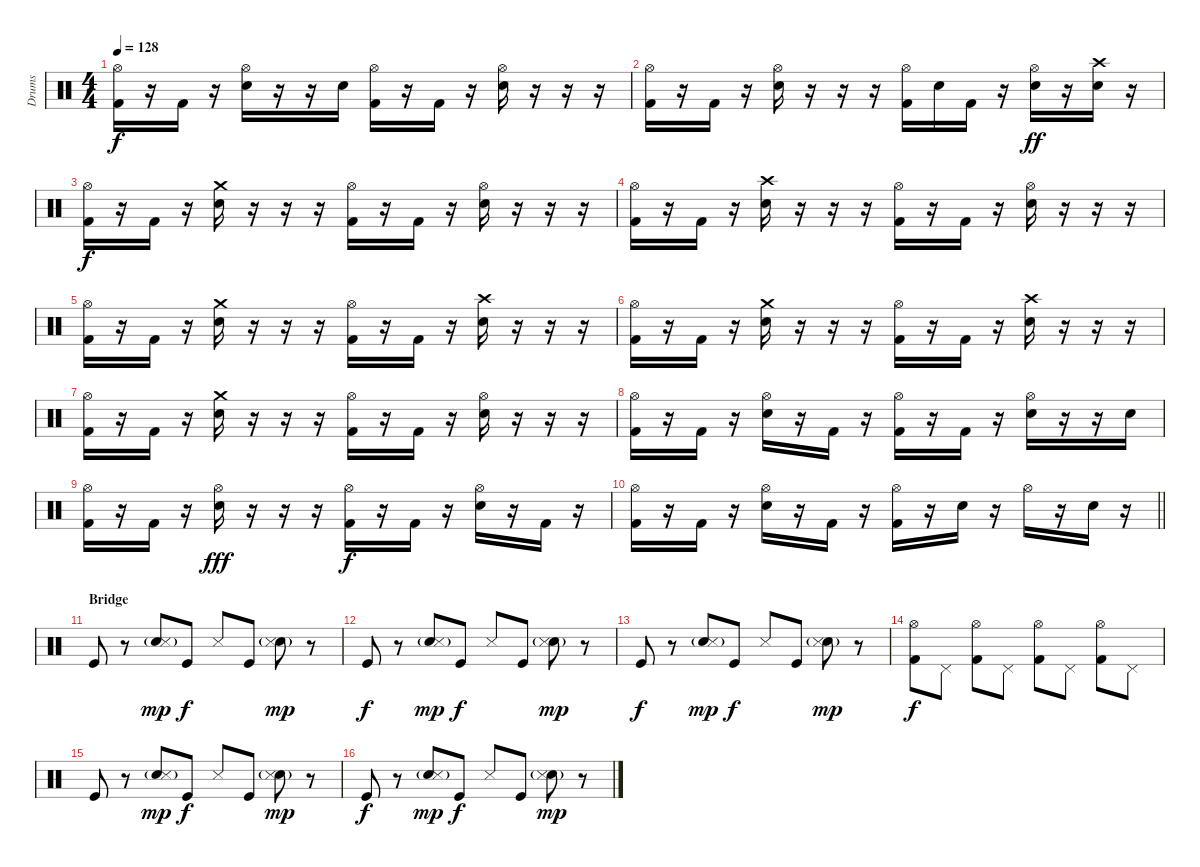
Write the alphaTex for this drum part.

\track ("Drums" "Drums") {instrument percussion}
\staff {score}
\articulation defaults
\ts (4 4)
\tempo 128
\clef neutral
\ks c
("Hi-Hat (open)" "Kick (hit) 2").16{dy f} r.16 "Kick (hit) 2".16 r.16 ("Hi-Hat (open)" "Electric Snare (hit)").16 r.16 r.16 "Electric Snare (hit)".16 ("Hi-Hat (open)" "Kick (hit) 2").16 r.16 "Kick (hit) 2".16 r.16 ("Hi-Hat (open)" "Electric Snare (hit)").16 r.16 r.16 r.16 |
("Hi-Hat (open)" "Kick (hit) 2").16 r.16 "Kick (hit) 2".16 r.16 ("Hi-Hat (open)" "Electric Snare (hit)").16 r.16 r.16 r.16 ("Hi-Hat (open)" "Kick (hit) 2").16 "Electric Snare (hit)".16 "Kick (hit) 2".16 r.16 ("Hi-Hat (open)" "Electric Snare (hit)").16{dy ff} r.16 ("Crash high (hit)" "Electric Snare (hit)").16 r.16 |
("Hi-Hat (open)" "Kick (hit) 2").16{dy f} r.16 "Kick (hit) 2".16 r.16 ("Crash medium (hit)" "Electric Snare (hit)").16 r.16 r.16 r.16 ("Hi-Hat (open)" "Kick (hit) 2").16 r.16 "Kick (hit) 2".16 r.16 ("Hi-Hat (open)" "Electric Snare (hit)").16 r.16 r.16 r.16 |
("Hi-Hat (open)" "Kick (hit) 2").16 r.16 "Kick (hit) 2".16 r.16 ("Crash high (hit)" "Electric Snare (hit)").16 r.16 r.16 r.16 ("Hi-Hat (open)" "Kick (hit) 2").16 r.16 "Kick (hit) 2".16 r.16 ("Hi-Hat (open)" "Electric Snare (hit)").16 r.16 r.16 r.16 |
("Hi-Hat (open)" "Kick (hit) 2").16 r.16 "Kick (hit) 2".16 r.16 ("Crash medium (hit)" "Electric Snare (hit)").16 r.16 r.16 r.16 ("Hi-Hat (open)" "Kick (hit) 2").16 r.16 "Kick (hit) 2".16 r.16 ("Crash high (hit)" "Electric Snare (hit)").16 r.16 r.16 r.16 |
("Hi-Hat (open)" "Kick (hit) 2").16 r.16 "Kick (hit) 2".16 r.16 ("Crash medium (hit)" "Electric Snare (hit)").16 r.16 r.16 r.16 ("Hi-Hat (open)" "Kick (hit) 2").16 r.16 "Kick (hit) 2".16 r.16 ("Crash high (hit)" "Electric Snare (hit)").16 r.16 r.16 r.16 |
("Hi-Hat (open)" "Kick (hit) 2").16 r.16 "Kick (hit) 2".16 r.16 ("Crash medium (hit)" "Electric Snare (hit)").16 r.16 r.16 r.16 ("Hi-Hat (open)" "Kick (hit) 2").16 r.16 "Kick (hit) 2".16 r.16 ("Hi-Hat (open)" "Electric Snare (hit)").16 r.16 r.16 r.16 |
("Hi-Hat (open)" "Kick (hit) 2").16 r.16 "Kick (hit) 2".16 r.16 ("Hi-Hat (open)" "Electric Snare (hit)").16 r.16 "Kick (hit) 2".16 r.16 ("Hi-Hat (open)" "Kick (hit) 2").16 r.16 "Kick (hit) 2".16 r.16 ("Hi-Hat (open)" "Electric Snare (hit)").16 r.16 r.16 "Electric Snare (hit)".16 |
("Hi-Hat (open)" "Kick (hit) 2").16 r.16 "Kick (hit) 2".16 r.16 ("Hi-Hat (open)" "Electric Snare (hit)").16{dy fff} r.16 r.16 r.16 ("Hi-Hat (open)" "Kick (hit) 2").16{dy f} r.16 "Kick (hit) 2".16 r.16 ("Hi-Hat (open)" "Electric Snare (hit)").16 r.16 "Kick (hit) 2".16 r.16 |
\barLineRight lightlight
("Hi-Hat (open)" "Kick (hit) 2").16 r.16 "Kick (hit) 2".16 r.16 ("Hi-Hat (open)" "Electric Snare (hit)").16 r.16 "Kick (hit) 2".16 r.16 ("Hi-Hat (open)" "Kick (hit) 2").16 r.16 "Electric Snare (hit)".16 r.16 "Hi-Hat (open)".16 r.16 "Electric Snare (hit)".16 r.16 |
\section ("" "Bridge")
"Kick (hit)".8 r.8 ("Electric Snare (hit)"{g} "Snare (side stick) 3").8{dy mp} "Kick (hit)".8{dy f} "Snare (side stick) 3".8 "Kick (hit)".8 ("Electric Snare (hit)"{g} "Snare (side stick) 3").8{dy mp} r.8 |
"Kick (hit)".8{dy f} r.8 ("Electric Snare (hit)"{g} "Snare (side stick) 3").8{dy mp} "Kick (hit)".8{dy f} "Snare (side stick) 3".8 "Kick (hit)".8 ("Electric Snare (hit)"{g} "Snare (side stick) 3").8{dy mp} r.8 |
"Kick (hit)".8{dy f} r.8 ("Electric Snare (hit)"{g} "Snare (side stick) 3").8{dy mp} "Kick (hit)".8{dy f} "Snare (side stick) 3".8 "Kick (hit)".8 ("Electric Snare (hit)"{g} "Snare (side stick) 3").8{dy mp} r.8 |
("Hi-Hat (open)" "Kick (hit) 2").8{dy f} "Pedal Hi-Hat (hit)".8 ("Hi-Hat (open)" "Kick (hit) 2").8 "Pedal Hi-Hat (hit)".8 ("Hi-Hat (open)" "Kick (hit) 2").8 "Pedal Hi-Hat (hit)".8 ("Hi-Hat (open)" "Kick (hit) 2").8 "Pedal Hi-Hat (hit)".8 |
"Kick (hit)".8 r.8 ("Electric Snare (hit)"{g} "Snare (side stick) 3").8{dy mp} "Kick (hit)".8{dy f} "Snare (side stick) 3".8 "Kick (hit)".8 ("Electric Snare (hit)"{g} "Snare (side stick) 3").8{dy mp} r.8 |
"Kick (hit)".8{dy f} r.8 ("Electric Snare (hit)"{g} "Snare (side stick) 3").8{dy mp} "Kick (hit)".8{dy f} "Snare (side stick) 3".8 "Kick (hit)".8 ("Electric Snare (hit)"{g} "Snare (side stick) 3").8{dy mp} r.8
